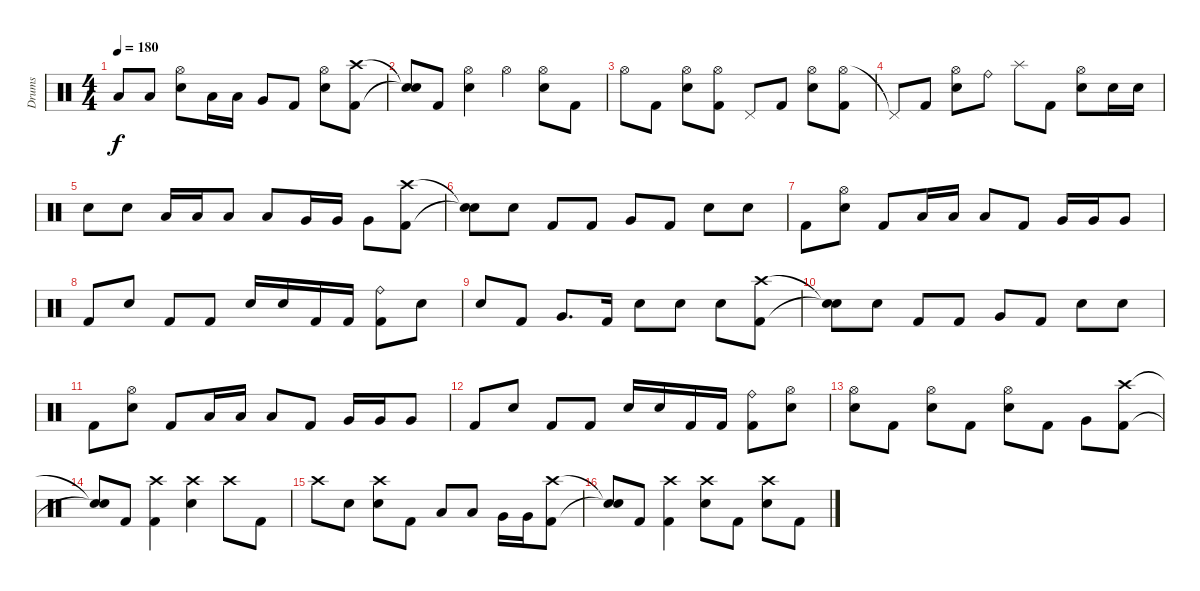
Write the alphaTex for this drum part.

\track ("Drums" "Drums") {instrument percussion}
\staff {score}
\articulation defaults
\ts (4 4)
\tempo 180
\clef neutral
\ks c "Low Tom (hit)".8{dy f} "Low Tom (hit)".8
("Hi-Hat (open)" "Electric Snare (hit)").8 "Low Tom (hit)".16 "Low Tom (hit)".16 "Very Low Tom (hit)".8 "Kick (hit) 2".8 ("Hi-Hat (open)" "Electric Snare (hit)").8 ("Crash high (hit)" "Kick (hit) 2").8 |
("Snare (hit)"{t} "Snare (hit)"{t}).8 "Kick (hit) 2".8 ("Hi-Hat (open)" "Electric Snare (hit)").4 "Hi-Hat (open)".4 ("Hi-Hat (open)" "Electric Snare (hit)").8 "Kick (hit) 2".8 |
"Hi-Hat (open)".8 "Kick (hit) 2".8 ("Hi-Hat (open)" "Electric Snare (hit)").8 ("Hi-Hat (open)" "Kick (hit) 2").8 "Pedal Hi-Hat (hit)".8 "Kick (hit) 2".8 ("Hi-Hat (open)" "Electric Snare (hit)").8 ("Hi-Hat (open)" "Kick (hit) 2").8 |
"Pedal Hi-Hat (hit)"{t}.8 "Kick (hit) 2".8 ("Hi-Hat (open)" "Electric Snare (hit)").8 "Ride (bell)".8 "Splash (hit)".8 "Kick (hit) 2".8 ("Hi-Hat (open)" "Electric Snare (hit)").8 "Electric Snare (hit)".16 "Electric Snare (hit)".16 |
"Electric Snare (hit)".8 "Electric Snare (hit)".8 "Low Tom (hit)".16 "Low Tom (hit)".16 "Low Tom (hit)".8 "Low Tom (hit)".8 "Very Low Tom (hit)".16 "Very Low Tom (hit)".16 "Very Low Tom (hit)".8 ("Crash high (hit)" "Kick (hit) 2").8 |
("Snare (hit)"{t} "Snare (hit)"{t}).8 "Electric Snare (hit)".8 "Kick (hit) 2".8 "Kick (hit) 2".8 "Very Low Tom (hit)".8 "Kick (hit) 2".8 "Electric Snare (hit)".8 "Electric Snare (hit)".8 |
"Kick (hit) 2".8 ("Hi-Hat (open)" "Electric Snare (hit)").8 "Kick (hit) 2".8 "Low Tom (hit)".16 "Low Tom (hit)".16 "Low Tom (hit)".8 "Kick (hit) 2".8 "Very Low Tom (hit)".16 "Very Low Tom (hit)".16 "Very Low Tom (hit)".8 |
"Kick (hit) 2".8 "Electric Snare (hit)".8 "Kick (hit) 2".8 "Kick (hit) 2".8 "Electric Snare (hit)".16 "Electric Snare (hit)".16 "Kick (hit) 2".16 "Kick (hit) 2".16 ("Ride (bell)" "Kick (hit) 2").8 "Electric Snare (hit)".8 |
"Electric Snare (hit)".8 "Kick (hit) 2".8 "Very Low Tom (hit)".8{d} "Kick (hit) 2".16 "Electric Snare (hit)".8 "Electric Snare (hit)".8 "Electric Snare (hit)".8 ("Crash high (hit)" "Kick (hit) 2").8 |
("Snare (hit)"{t} "Snare (hit)"{t}).8 "Electric Snare (hit)".8 "Kick (hit) 2".8 "Kick (hit) 2".8 "Very Low Tom (hit)".8 "Kick (hit) 2".8 "Electric Snare (hit)".8 "Electric Snare (hit)".8 |
"Kick (hit) 2".8 ("Hi-Hat (open)" "Electric Snare (hit)").8 "Kick (hit) 2".8 "Low Tom (hit)".16 "Low Tom (hit)".16 "Low Tom (hit)".8 "Kick (hit) 2".8 "Very Low Tom (hit)".16 "Very Low Tom (hit)".16 "Very Low Tom (hit)".8 |
"Kick (hit) 2".8 "Electric Snare (hit)".8 "Kick (hit) 2".8 "Kick (hit) 2".8 "Electric Snare (hit)".16 "Electric Snare (hit)".16 "Kick (hit) 2".16 "Kick (hit) 2".16 ("Ride (bell)" "Kick (hit) 2").8 ("Hi-Hat (open)" "Electric Snare (hit)").8 |
("Hi-Hat (open)" "Electric Snare (hit)").8 "Kick (hit) 2".8 ("Hi-Hat (open)" "Electric Snare (hit)").8 "Kick (hit) 2".8 ("Hi-Hat (open)" "Electric Snare (hit)").8 "Kick (hit) 2".8 "Very Low Tom (hit)".8 ("Crash high (hit)" "Kick (hit) 2").8 |
("Snare (hit)"{t} "Snare (hit)"{t}).8 "Kick (hit) 2".8 ("Crash high (hit)" "Kick (hit) 2").4 ("Crash high (hit)" "Electric Snare (hit)").4 "Crash high (hit)".8 "Kick (hit) 2".8 |
"Crash high (hit)".8 "Electric Snare (hit)".8 ("Crash high (hit)" "Electric Snare (hit)").8 "Kick (hit) 2".8 "Low Tom (hit)".8 "Low Tom (hit)".8 "Very Low Tom (hit)".16 "Very Low Tom (hit)".16 ("Crash high (hit)" "Kick (hit) 2").8 |
("Snare (hit)"{t} "Snare (hit)"{t}).8 "Kick (hit) 2".8 ("Crash high (hit)" "Kick (hit) 2").4 ("Crash high (hit)" "Electric Snare (hit)").8 "Kick (hit) 2".8 ("Crash high (hit)" "Electric Snare (hit)").8 "Kick (hit) 2".8
